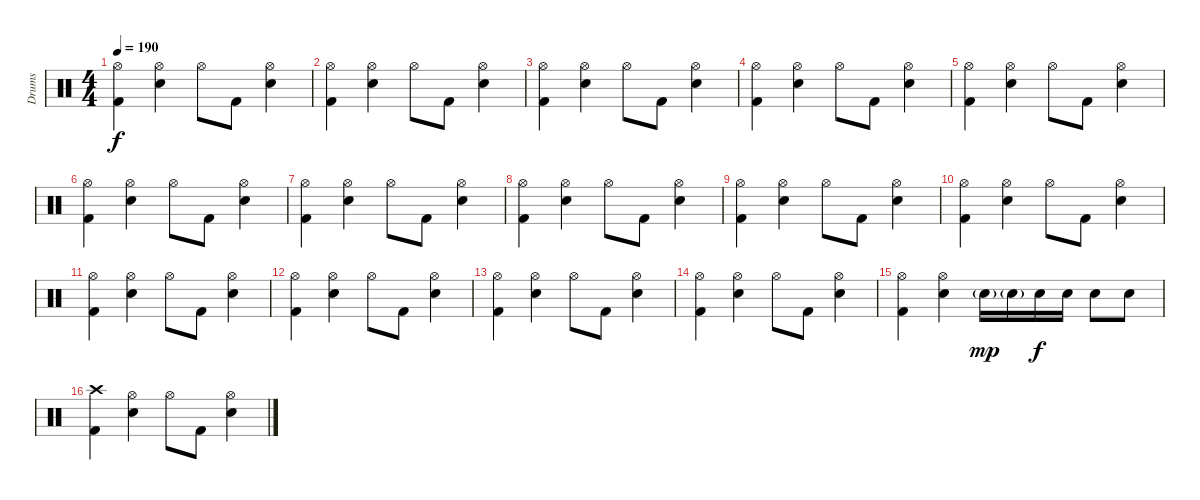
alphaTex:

\track ("Drums" "Drums") {instrument percussion}
\staff {score}
\articulation defaults
\ts (4 4)
\tempo 190
\clef neutral
\ks c
("Hi-Hat (open)" "Kick (hit) 2").4{dy f} ("Hi-Hat (open)" "Electric Snare (hit)").4 "Hi-Hat (open)".8 "Kick (hit) 2".8 ("Hi-Hat (open)" "Electric Snare (hit)").4 |
("Hi-Hat (open)" "Kick (hit) 2").4 ("Hi-Hat (open)" "Electric Snare (hit)").4 "Hi-Hat (open)".8 "Kick (hit) 2".8 ("Hi-Hat (open)" "Electric Snare (hit)").4 |
("Hi-Hat (open)" "Kick (hit) 2").4 ("Hi-Hat (open)" "Electric Snare (hit)").4 "Hi-Hat (open)".8 "Kick (hit) 2".8 ("Hi-Hat (open)" "Electric Snare (hit)").4 |
("Hi-Hat (open)" "Kick (hit) 2").4 ("Hi-Hat (open)" "Electric Snare (hit)").4 "Hi-Hat (open)".8 "Kick (hit) 2".8 ("Hi-Hat (open)" "Electric Snare (hit)").4 |
("Hi-Hat (open)" "Kick (hit) 2").4 ("Hi-Hat (open)" "Electric Snare (hit)").4 "Hi-Hat (open)".8 "Kick (hit) 2".8 ("Hi-Hat (open)" "Electric Snare (hit)").4 |
("Hi-Hat (open)" "Kick (hit) 2").4 ("Hi-Hat (open)" "Electric Snare (hit)").4 "Hi-Hat (open)".8 "Kick (hit) 2".8 ("Hi-Hat (open)" "Electric Snare (hit)").4 |
("Hi-Hat (open)" "Kick (hit) 2").4 ("Hi-Hat (open)" "Electric Snare (hit)").4 "Hi-Hat (open)".8 "Kick (hit) 2".8 ("Hi-Hat (open)" "Electric Snare (hit)").4 |
("Hi-Hat (open)" "Kick (hit) 2").4 ("Hi-Hat (open)" "Electric Snare (hit)").4 "Hi-Hat (open)".8 "Kick (hit) 2".8 ("Hi-Hat (open)" "Electric Snare (hit)").4 |
("Hi-Hat (open)" "Kick (hit) 2").4 ("Hi-Hat (open)" "Electric Snare (hit)").4 "Hi-Hat (open)".8 "Kick (hit) 2".8 ("Hi-Hat (open)" "Electric Snare (hit)").4 |
("Hi-Hat (open)" "Kick (hit) 2").4 ("Hi-Hat (open)" "Electric Snare (hit)").4 "Hi-Hat (open)".8 "Kick (hit) 2".8 ("Hi-Hat (open)" "Electric Snare (hit)").4 |
("Hi-Hat (open)" "Kick (hit) 2").4 ("Hi-Hat (open)" "Electric Snare (hit)").4 "Hi-Hat (open)".8 "Kick (hit) 2".8 ("Hi-Hat (open)" "Electric Snare (hit)").4 |
("Hi-Hat (open)" "Kick (hit) 2").4 ("Hi-Hat (open)" "Electric Snare (hit)").4 "Hi-Hat (open)".8 "Kick (hit) 2".8 ("Hi-Hat (open)" "Electric Snare (hit)").4 |
("Hi-Hat (open)" "Kick (hit) 2").4 ("Hi-Hat (open)" "Electric Snare (hit)").4 "Hi-Hat (open)".8 "Kick (hit) 2".8 ("Hi-Hat (open)" "Electric Snare (hit)").4 |
("Hi-Hat (open)" "Kick (hit) 2").4 ("Hi-Hat (open)" "Electric Snare (hit)").4 "Hi-Hat (open)".8 "Kick (hit) 2".8 ("Hi-Hat (open)" "Electric Snare (hit)").4 |
("Hi-Hat (open)" "Kick (hit) 2").4 ("Hi-Hat (open)" "Electric Snare (hit)").4 "Electric Snare (hit)"{g}.16{dy mp} "Electric Snare (hit)"{g}.16 "Electric Snare (hit)".16{dy f} "Electric Snare (hit)".16 "Electric Snare (hit)".8 "Electric Snare (hit)".8 |
("Crash high (hit)" "Kick (hit) 2").4 ("Hi-Hat (open)" "Electric Snare (hit)").4 "Hi-Hat (open)".8 "Kick (hit) 2".8 ("Hi-Hat (open)" "Electric Snare (hit)").4
